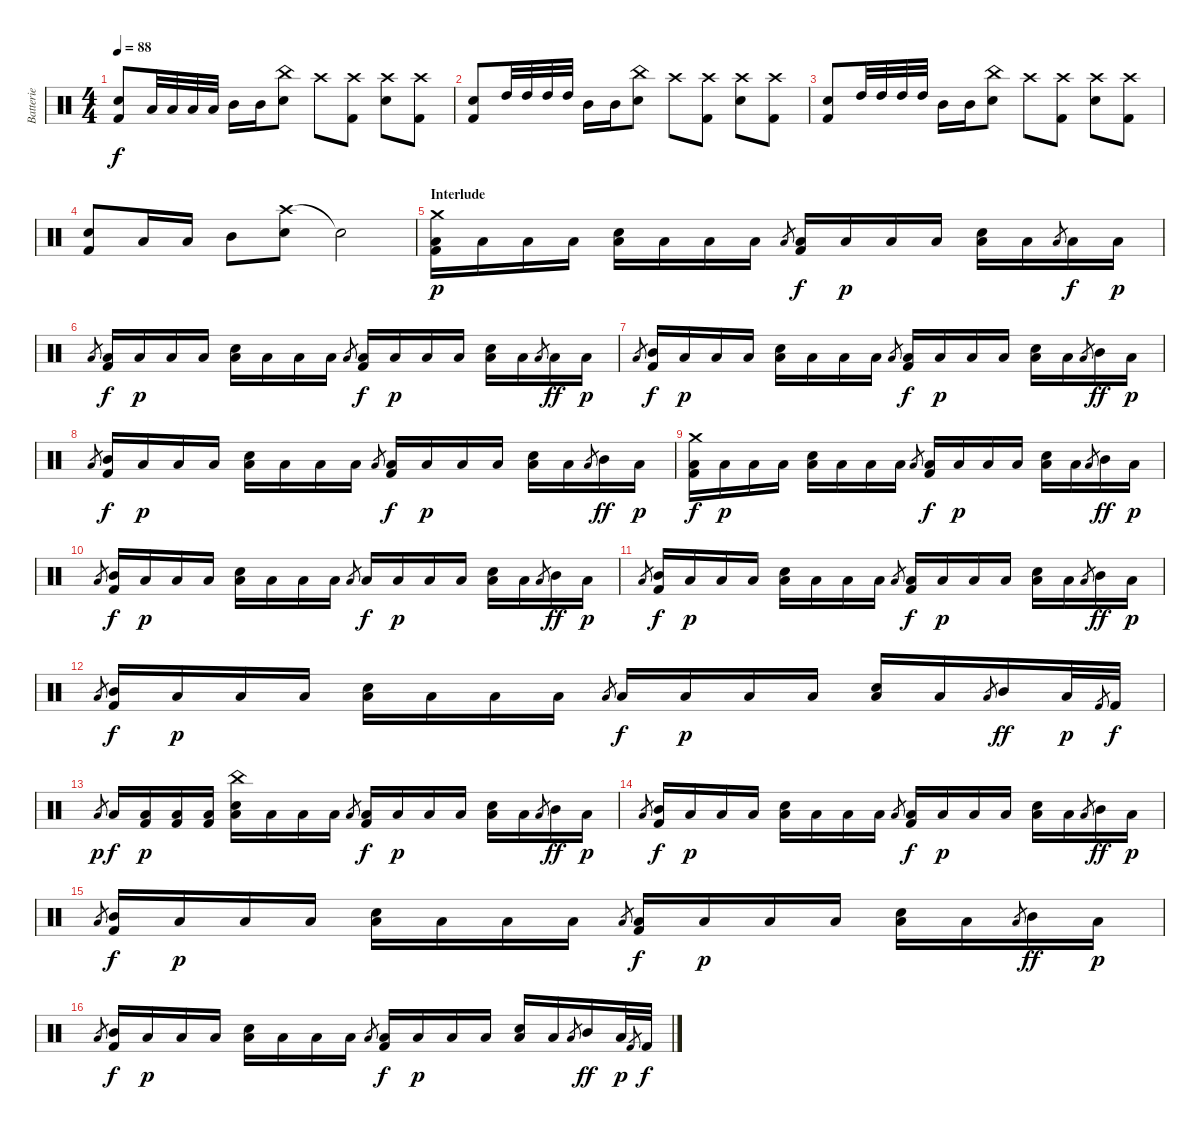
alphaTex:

\track ("Batterie" "Batterie") {instrument percussion}
\staff {score}
\articulation defaults
\ts (4 4)
\tempo 88
\clef neutral
\ks c
("Electric Snare (hit)" "Kick (hit) 2").8{dy f} "Low Tom (hit)".32 "Low Tom (hit)".32 "Low Tom (hit)".32 "Low Tom (hit)".32 "Mid Tom (hit)".16 "Mid Tom (hit)".16 ("China (hit)" "Electric Snare (hit)").8 "Crash high (hit)".8 ("Crash high (hit)" "Kick (hit) 2").8 ("Crash high (hit)" "Electric Snare (hit)").8 ("Crash high (hit)" "Kick (hit) 2").8 |
("Electric Snare (hit)" "Kick (hit) 2").8 "High Tom (hit)".32 "High Tom (hit)".32 "High Tom (hit)".32 "High Tom (hit)".32 "Mid Tom (hit)".16 "Mid Tom (hit)".16 ("China (hit)" "Electric Snare (hit)").8 "Crash high (hit)".8 ("Crash high (hit)" "Kick (hit) 2").8 ("Crash high (hit)" "Electric Snare (hit)").8 ("Crash high (hit)" "Kick (hit) 2").8 |
("Electric Snare (hit)" "Kick (hit) 2").8 "High Tom (hit)".32 "High Tom (hit)".32 "High Tom (hit)".32 "High Tom (hit)".32 "Mid Tom (hit)".16 "Mid Tom (hit)".16 ("China (hit)" "Electric Snare (hit)").8 "Crash high (hit)".8 ("Crash high (hit)" "Kick (hit) 2").8 ("Crash high (hit)" "Electric Snare (hit)").8 ("Crash high (hit)" "Kick (hit) 2").8 |
("Electric Snare (hit)" "Kick (hit) 2").8 "Low Tom (hit)".16 "Low Tom (hit)".16 "Mid Tom (hit)".8 ("Crash high (hit)" "Electric Snare (hit)").8 "Snare (hit)"{t}.2 |
\section ("" "Interlude")
("Crash medium (hit)" "Low Tom (hit)" "Kick (hit) 2").16{dy p} "Low Tom (hit)".16 "Low Tom (hit)".16 "Low Tom (hit)".16 ("Electric Snare (hit)" "Low Tom (hit)").16 "Low Tom (hit)".16 "Low Tom (hit)".16 "Low Tom (hit)".16 "Low Tom (hit)".8{gr} ("Low Tom (hit)" "Kick (hit) 2").16{dy f} "Low Tom (hit)".16{dy p} "Low Tom (hit)".16 "Low Tom (hit)".16 ("Electric Snare (hit)" "Low Tom (hit)").16 "Low Tom (hit)".16 "Low Tom (hit)".8{gr} "Low Tom (hit)".16{dy f} "Low Tom (hit)".16{dy p} |
"Low Tom (hit)".8{gr} ("Low Tom (hit)" "Kick (hit) 2").16{dy f} "Low Tom (hit)".16{dy p} "Low Tom (hit)".16 "Low Tom (hit)".16 ("Electric Snare (hit)" "Low Tom (hit)").16 "Low Tom (hit)".16 "Low Tom (hit)".16 "Low Tom (hit)".16 "Low Tom (hit)".8{gr} ("Low Tom (hit)" "Kick (hit) 2").16{dy f} "Low Tom (hit)".16{dy p} "Low Tom (hit)".16 "Low Tom (hit)".16 ("Electric Snare (hit)" "Low Tom (hit)").16 "Low Tom (hit)".16 "Low Tom (hit)".8{gr} "Low Tom (hit)".16{dy ff} "Low Tom (hit)".16{dy p} |
"Low Tom (hit)".8{gr} ("Mid Tom (hit)" "Kick (hit) 2").16{dy f} "Low Tom (hit)".16{dy p} "Low Tom (hit)".16 "Low Tom (hit)".16 ("Electric Snare (hit)" "Low Tom (hit)").16 "Low Tom (hit)".16 "Low Tom (hit)".16 "Low Tom (hit)".16 "Low Tom (hit)".8{gr} ("Low Tom (hit)" "Kick (hit) 2").16{dy f} "Low Tom (hit)".16{dy p} "Low Tom (hit)".16 "Low Tom (hit)".16 ("Electric Snare (hit)" "Low Tom (hit)").16 "Low Tom (hit)".16 "Low Tom (hit)".8{gr} "Mid Tom (hit)".16{dy ff} "Low Tom (hit)".16{dy p} |
"Low Tom (hit)".8{gr} ("Mid Tom (hit)" "Kick (hit) 2").16{dy f} "Low Tom (hit)".16{dy p} "Low Tom (hit)".16 "Low Tom (hit)".16 ("Electric Snare (hit)" "Low Tom (hit)").16 "Low Tom (hit)".16 "Low Tom (hit)".16 "Low Tom (hit)".16 "Low Tom (hit)".8{gr} ("Low Tom (hit)" "Kick (hit) 2").16{dy f} "Low Tom (hit)".16{dy p} "Low Tom (hit)".16 "Low Tom (hit)".16 ("Electric Snare (hit)" "Low Tom (hit)").16 "Low Tom (hit)".16 "Low Tom (hit)".8{gr} "Mid Tom (hit)".16{dy ff} "Low Tom (hit)".16{dy p} |
("Crash medium (hit)" "Low Tom (hit)" "Kick (hit) 2").16{dy f} "Low Tom (hit)".16{dy p} "Low Tom (hit)".16 "Low Tom (hit)".16 ("Electric Snare (hit)" "Low Tom (hit)").16 "Low Tom (hit)".16 "Low Tom (hit)".16 "Low Tom (hit)".16 "Low Tom (hit)".8{gr} ("Low Tom (hit)" "Kick (hit) 2").16{dy f} "Low Tom (hit)".16{dy p} "Low Tom (hit)".16 "Low Tom (hit)".16 ("Electric Snare (hit)" "Low Tom (hit)").16 "Low Tom (hit)".16 "Low Tom (hit)".8{gr} "Mid Tom (hit)".16{dy ff} "Low Tom (hit)".16{dy p} |
"Low Tom (hit)".8{gr} ("Mid Tom (hit)" "Kick (hit) 2").16{dy f} "Low Tom (hit)".16{dy p} "Low Tom (hit)".16 "Low Tom (hit)".16 ("Electric Snare (hit)" "Low Tom (hit)").16 "Low Tom (hit)".16 "Low Tom (hit)".16 "Low Tom (hit)".16 "Low Tom (hit)".8{gr} "Low Tom (hit)".16{dy f} "Low Tom (hit)".16{dy p} "Low Tom (hit)".16 "Low Tom (hit)".16 ("Electric Snare (hit)" "Low Tom (hit)").16 "Low Tom (hit)".16 "Low Tom (hit)".8{gr} "Mid Tom (hit)".16{dy ff} "Low Tom (hit)".16{dy p} |
"Low Tom (hit)".8{gr} ("Mid Tom (hit)" "Kick (hit) 2").16{dy f} "Low Tom (hit)".16{dy p} "Low Tom (hit)".16 "Low Tom (hit)".16 ("Electric Snare (hit)" "Low Tom (hit)").16 "Low Tom (hit)".16 "Low Tom (hit)".16 "Low Tom (hit)".16 "Low Tom (hit)".8{gr} ("Low Tom (hit)" "Kick (hit) 2").16{dy f} "Low Tom (hit)".16{dy p} "Low Tom (hit)".16 "Low Tom (hit)".16 ("Electric Snare (hit)" "Low Tom (hit)").16 "Low Tom (hit)".16 "Low Tom (hit)".8{gr} "Mid Tom (hit)".16{dy ff} "Low Tom (hit)".16{dy p} |
"Low Tom (hit)".8{gr} ("Mid Tom (hit)" "Kick (hit) 2").16{dy f} "Low Tom (hit)".16{dy p} "Low Tom (hit)".16 "Low Tom (hit)".16 ("Electric Snare (hit)" "Low Tom (hit)").16 "Low Tom (hit)".16 "Low Tom (hit)".16 "Low Tom (hit)".16 "Low Tom (hit)".8{gr} "Low Tom (hit)".16{dy f} "Low Tom (hit)".16{dy p} "Low Tom (hit)".16 "Low Tom (hit)".16 ("Electric Snare (hit)" "Low Tom (hit)").16 "Low Tom (hit)".16 "Low Tom (hit)".8{gr} "Mid Tom (hit)".16{dy ff} "Low Tom (hit)".32{dy p} "Kick (hit) 2".8{gr} "Kick (hit) 2".32{dy f} |
"Low Tom (hit)".8{gr dy p} "Low Tom (hit)".16{dy f} ("Low Tom (hit)" "Kick (hit) 2").16{dy p} ("Low Tom (hit)" "Kick (hit) 2").16 ("Low Tom (hit)" "Kick (hit) 2").16 ("China (hit)" "Electric Snare (hit)" "Low Tom (hit)").16 "Low Tom (hit)".16 "Low Tom (hit)".16 "Low Tom (hit)".16 "Low Tom (hit)".8{gr} ("Low Tom (hit)" "Kick (hit) 2").16{dy f} "Low Tom (hit)".16{dy p} "Low Tom (hit)".16 "Low Tom (hit)".16 ("Electric Snare (hit)" "Low Tom (hit)").16 "Low Tom (hit)".16 "Low Tom (hit)".8{gr} "Mid Tom (hit)".16{dy ff} "Low Tom (hit)".16{dy p} |
"Low Tom (hit)".8{gr} ("Mid Tom (hit)" "Kick (hit) 2").16{dy f} "Low Tom (hit)".16{dy p} "Low Tom (hit)".16 "Low Tom (hit)".16 ("Electric Snare (hit)" "Low Tom (hit)").16 "Low Tom (hit)".16 "Low Tom (hit)".16 "Low Tom (hit)".16 "Low Tom (hit)".8{gr} ("Low Tom (hit)" "Kick (hit) 2").16{dy f} "Low Tom (hit)".16{dy p} "Low Tom (hit)".16 "Low Tom (hit)".16 ("Electric Snare (hit)" "Low Tom (hit)").16 "Low Tom (hit)".16 "Low Tom (hit)".8{gr} "Mid Tom (hit)".16{dy ff} "Low Tom (hit)".16{dy p} |
"Low Tom (hit)".8{gr} ("Mid Tom (hit)" "Kick (hit) 2").16{dy f} "Low Tom (hit)".16{dy p} "Low Tom (hit)".16 "Low Tom (hit)".16 ("Electric Snare (hit)" "Low Tom (hit)").16 "Low Tom (hit)".16 "Low Tom (hit)".16 "Low Tom (hit)".16 "Low Tom (hit)".8{gr} ("Low Tom (hit)" "Kick (hit) 2").16{dy f} "Low Tom (hit)".16{dy p} "Low Tom (hit)".16 "Low Tom (hit)".16 ("Electric Snare (hit)" "Low Tom (hit)").16 "Low Tom (hit)".16 "Low Tom (hit)".8{gr} "Mid Tom (hit)".16{dy ff} "Low Tom (hit)".16{dy p} |
"Low Tom (hit)".8{gr} ("Mid Tom (hit)" "Kick (hit) 2").16{dy f} "Low Tom (hit)".16{dy p} "Low Tom (hit)".16 "Low Tom (hit)".16 ("Electric Snare (hit)" "Low Tom (hit)").16 "Low Tom (hit)".16 "Low Tom (hit)".16 "Low Tom (hit)".16 "Low Tom (hit)".8{gr} ("Low Tom (hit)" "Kick (hit) 2").16{dy f} "Low Tom (hit)".16{dy p} "Low Tom (hit)".16 "Low Tom (hit)".16 ("Electric Snare (hit)" "Low Tom (hit)").16 "Low Tom (hit)".16 "Low Tom (hit)".8{gr} "Mid Tom (hit)".16{dy ff} "Low Tom (hit)".32{dy p} "Kick (hit) 2".8{gr} "Kick (hit) 2".32{dy f}
